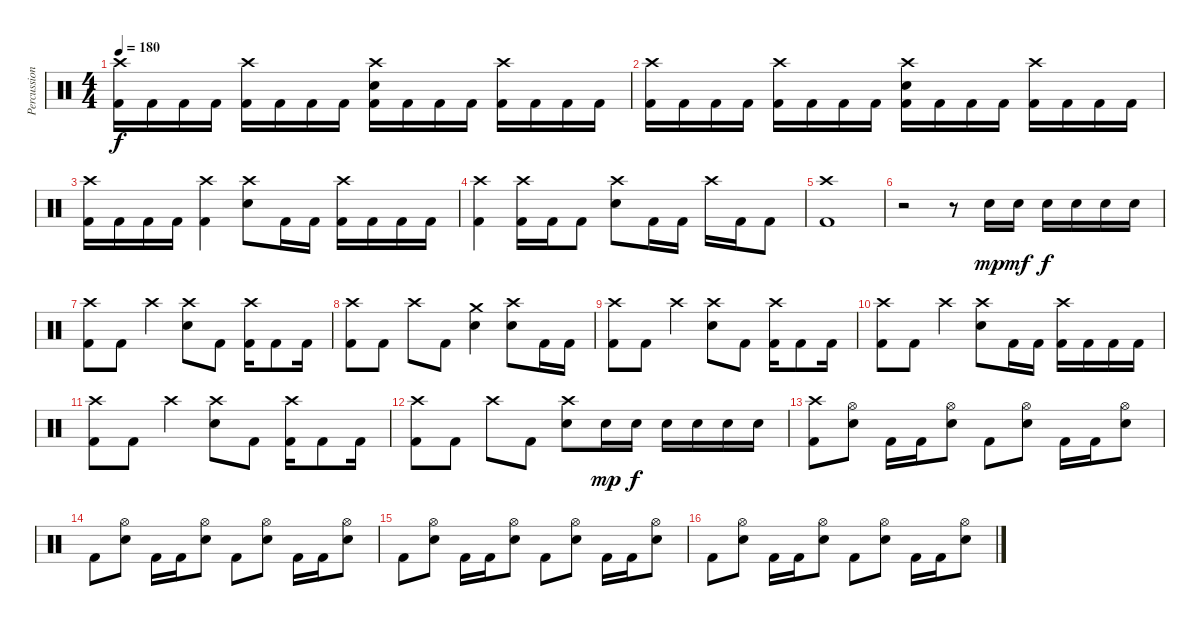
\track ("Percussion" "Percussion") {instrument percussion}
\staff {score}
\articulation defaults
\ts (4 4)
\tempo 180
\clef neutral
\ks c
("Crash high (hit)" "Kick (hit) 2").16{dy f} "Kick (hit) 2".16 "Kick (hit) 2".16 "Kick (hit) 2".16 ("Crash high (hit)" "Kick (hit) 2").16 "Kick (hit) 2".16 "Kick (hit) 2".16 "Kick (hit) 2".16 ("Crash high (hit)" "Electric Snare (hit)" "Kick (hit) 2").16 "Kick (hit) 2".16 "Kick (hit) 2".16 "Kick (hit) 2".16 ("Crash high (hit)" "Kick (hit) 2").16 "Kick (hit) 2".16 "Kick (hit) 2".16 "Kick (hit) 2".16 |
("Crash high (hit)" "Kick (hit) 2").16 "Kick (hit) 2".16 "Kick (hit) 2".16 "Kick (hit) 2".16 ("Crash high (hit)" "Kick (hit) 2").16 "Kick (hit) 2".16 "Kick (hit) 2".16 "Kick (hit) 2".16 ("Crash high (hit)" "Electric Snare (hit)" "Kick (hit) 2").16 "Kick (hit) 2".16 "Kick (hit) 2".16 "Kick (hit) 2".16 ("Crash high (hit)" "Kick (hit) 2").16 "Kick (hit) 2".16 "Kick (hit) 2".16 "Kick (hit) 2".16 |
("Crash high (hit)" "Kick (hit) 2").16 "Kick (hit) 2".16 "Kick (hit) 2".16 "Kick (hit) 2".16 ("Crash high (hit)" "Kick (hit) 2").4 ("Crash high (hit)" "Electric Snare (hit)").8 "Kick (hit) 2".16 "Kick (hit) 2".16 ("Crash high (hit)" "Kick (hit) 2").16 "Kick (hit) 2".16 "Kick (hit) 2".16 "Kick (hit) 2".16 |
("Crash high (hit)" "Kick (hit) 2").4 ("Crash high (hit)" "Kick (hit) 2").16 "Kick (hit) 2".16 "Kick (hit) 2".8 ("Crash high (hit)" "Electric Snare (hit)").8 "Kick (hit) 2".16 "Kick (hit) 2".16 "Crash high (hit)".16 "Kick (hit) 2".16 "Kick (hit) 2".8 |
("Crash high (hit)" "Kick (hit) 2").1 |
r.2 r.8 "Electric Snare (hit)".16{dy mp} "Electric Snare (hit)".16{dy mf} "Electric Snare (hit)".16{dy f} "Electric Snare (hit)".16 "Electric Snare (hit)".16 "Electric Snare (hit)".16 |
("Crash high (hit)" "Kick (hit) 2").8 "Kick (hit) 2".8 "Crash high (hit)".4 ("Crash high (hit)" "Electric Snare (hit)").8 "Kick (hit) 2".8 ("Crash high (hit)" "Kick (hit) 2").16 "Kick (hit) 2".8 "Kick (hit) 2".16 |
("Crash high (hit)" "Kick (hit) 2").8 "Kick (hit) 2".8 "Crash high (hit)".8 "Kick (hit) 2".8 ("Crash medium (hit)" "Electric Snare (hit)").4 ("Crash high (hit)" "Electric Snare (hit)").8 "Kick (hit) 2".16 "Kick (hit) 2".16 |
("Crash high (hit)" "Kick (hit) 2").8 "Kick (hit) 2".8 "Crash high (hit)".4 ("Crash high (hit)" "Electric Snare (hit)").8 "Kick (hit) 2".8 ("Crash high (hit)" "Kick (hit) 2").16 "Kick (hit) 2".8 "Kick (hit) 2".16 |
("Crash high (hit)" "Kick (hit) 2").8 "Kick (hit) 2".8 "Crash high (hit)".4 ("Crash high (hit)" "Electric Snare (hit)").8 "Kick (hit) 2".16 "Kick (hit) 2".16 ("Crash high (hit)" "Kick (hit) 2").16 "Kick (hit) 2".16 "Kick (hit) 2".16 "Kick (hit) 2".16 |
("Crash high (hit)" "Kick (hit) 2").8 "Kick (hit) 2".8 "Crash high (hit)".4 ("Crash high (hit)" "Electric Snare (hit)").8 "Kick (hit) 2".8 ("Crash high (hit)" "Kick (hit) 2").16 "Kick (hit) 2".8 "Kick (hit) 2".16 |
("Crash high (hit)" "Kick (hit) 2").8 "Kick (hit) 2".8 "Crash high (hit)".8 "Kick (hit) 2".8 ("Crash high (hit)" "Electric Snare (hit)").8 "Electric Snare (hit)".16{dy mp} "Electric Snare (hit)".16{dy f} "Electric Snare (hit)".16 "Electric Snare (hit)".16 "Electric Snare (hit)".16 "Electric Snare (hit)".16 |
("Crash high (hit)" "Kick (hit) 2").8 ("Hi-Hat (open)" "Electric Snare (hit)").8 "Kick (hit) 2".16 "Kick (hit) 2".16 ("Hi-Hat (open)" "Electric Snare (hit)").8 "Kick (hit) 2".8 ("Hi-Hat (open)" "Electric Snare (hit)").8 "Kick (hit) 2".16 "Kick (hit) 2".16 ("Hi-Hat (open)" "Electric Snare (hit)").8 |
"Kick (hit) 2".8 ("Hi-Hat (open)" "Electric Snare (hit)").8 "Kick (hit) 2".16 "Kick (hit) 2".16 ("Hi-Hat (open)" "Electric Snare (hit)").8 "Kick (hit) 2".8 ("Hi-Hat (open)" "Electric Snare (hit)").8 "Kick (hit) 2".16 "Kick (hit) 2".16 ("Hi-Hat (open)" "Electric Snare (hit)").8 |
"Kick (hit) 2".8 ("Hi-Hat (open)" "Electric Snare (hit)").8 "Kick (hit) 2".16 "Kick (hit) 2".16 ("Hi-Hat (open)" "Electric Snare (hit)").8 "Kick (hit) 2".8 ("Hi-Hat (open)" "Electric Snare (hit)").8 "Kick (hit) 2".16 "Kick (hit) 2".16 ("Hi-Hat (open)" "Electric Snare (hit)").8 |
"Kick (hit) 2".8 ("Hi-Hat (open)" "Electric Snare (hit)").8 "Kick (hit) 2".16 "Kick (hit) 2".16 ("Hi-Hat (open)" "Electric Snare (hit)").8 "Kick (hit) 2".8 ("Hi-Hat (open)" "Electric Snare (hit)").8 "Kick (hit) 2".16 "Kick (hit) 2".16 ("Hi-Hat (open)" "Electric Snare (hit)").8
